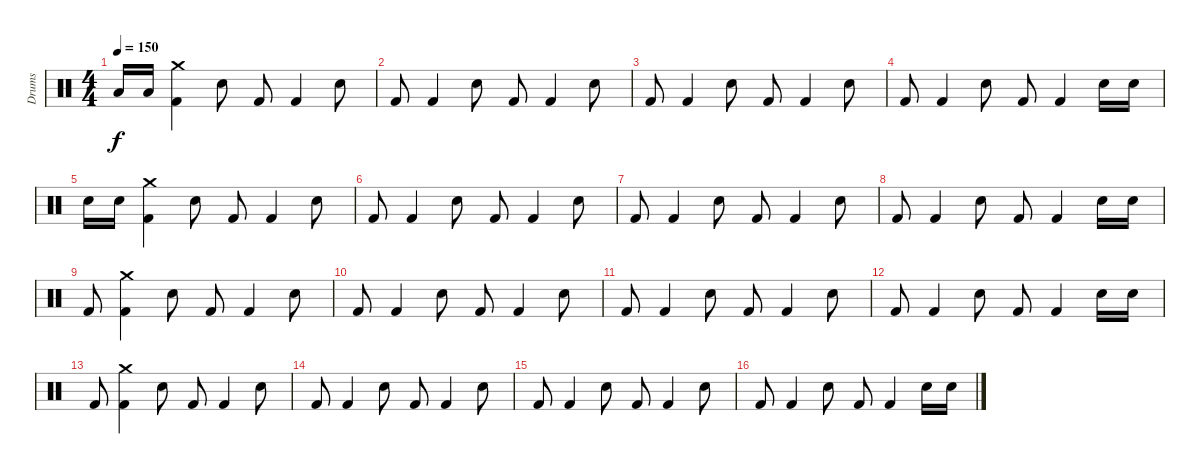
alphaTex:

\track ("Drums" "Drums") {instrument percussion}
\staff {score}
\articulation defaults
\ts (4 4)
\tempo 150
\clef neutral
\ks c "Low Tom (hit)".16{dy f} "Low Floor Tom (hit)".16
("Crash medium (hit)" "Kick (hit) 2").4 "Snare (hit) 2".8 "Kick (hit) 2".8 "Kick (hit) 2".4 "Snare (hit) 2".8 |
"Kick (hit) 2".8 "Kick (hit) 2".4 "Snare (hit) 2".8 "Kick (hit) 2".8 "Kick (hit) 2".4 "Snare (hit) 2".8 |
"Kick (hit) 2".8 "Kick (hit) 2".4 "Snare (hit) 2".8 "Kick (hit) 2".8 "Kick (hit) 2".4 "Snare (hit) 2".8 |
"Kick (hit) 2".8 "Kick (hit) 2".4 "Snare (hit) 2".8 "Kick (hit) 2".8 "Kick (hit) 2".4 "Snare (hit) 2".16 "Snare (hit) 2".16 |
"Snare (hit) 2".16 "Snare (hit) 2".16 ("Crash medium (hit)" "Kick (hit) 2").4 "Snare (hit) 2".8 "Kick (hit) 2".8 "Kick (hit) 2".4 "Snare (hit) 2".8 |
"Kick (hit) 2".8 "Kick (hit) 2".4 "Snare (hit) 2".8 "Kick (hit) 2".8 "Kick (hit) 2".4 "Snare (hit) 2".8 |
"Kick (hit) 2".8 "Kick (hit) 2".4 "Snare (hit) 2".8 "Kick (hit) 2".8 "Kick (hit) 2".4 "Snare (hit) 2".8 |
"Kick (hit) 2".8 "Kick (hit) 2".4 "Snare (hit) 2".8 "Kick (hit) 2".8 "Kick (hit) 2".4 "Snare (hit) 2".16 "Snare (hit) 2".16 |
"Kick (hit) 2".8 ("Crash medium (hit)" "Kick (hit) 2").4 "Snare (hit) 2".8 "Kick (hit) 2".8 "Kick (hit) 2".4 "Snare (hit) 2".8 |
"Kick (hit) 2".8 "Kick (hit) 2".4 "Snare (hit) 2".8 "Kick (hit) 2".8 "Kick (hit) 2".4 "Snare (hit) 2".8 |
"Kick (hit) 2".8 "Kick (hit) 2".4 "Snare (hit) 2".8 "Kick (hit) 2".8 "Kick (hit) 2".4 "Snare (hit) 2".8 |
"Kick (hit) 2".8 "Kick (hit) 2".4 "Snare (hit) 2".8 "Kick (hit) 2".8 "Kick (hit) 2".4 "Snare (hit) 2".16 "Snare (hit) 2".16 |
"Kick (hit) 2".8 ("Crash medium (hit)" "Kick (hit) 2").4 "Snare (hit) 2".8 "Kick (hit) 2".8 "Kick (hit) 2".4 "Snare (hit) 2".8 |
"Kick (hit) 2".8 "Kick (hit) 2".4 "Snare (hit) 2".8 "Kick (hit) 2".8 "Kick (hit) 2".4 "Snare (hit) 2".8 |
"Kick (hit) 2".8 "Kick (hit) 2".4 "Snare (hit) 2".8 "Kick (hit) 2".8 "Kick (hit) 2".4 "Snare (hit) 2".8 |
"Kick (hit) 2".8 "Kick (hit) 2".4 "Snare (hit) 2".8 "Kick (hit) 2".8 "Kick (hit) 2".4 "Snare (hit) 2".16 "Snare (hit) 2".16
